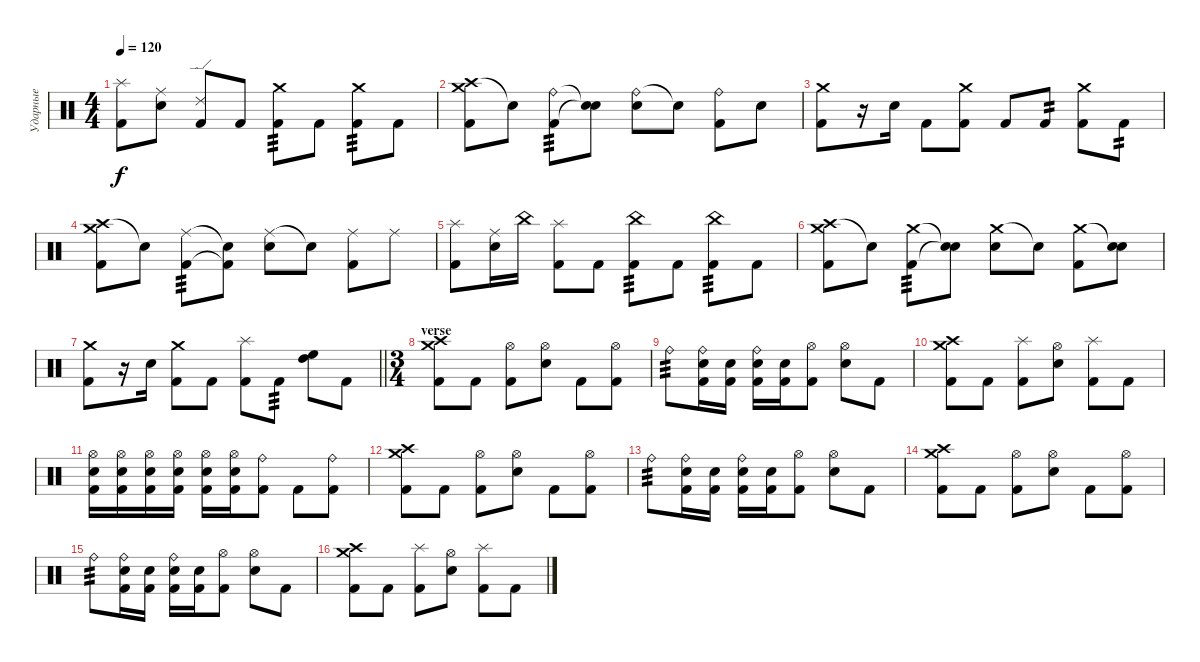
\track ("Ударные" "Ударные") {instrument percussion}
\staff {score}
\articulation defaults
\ts (4 4)
\tempo 120
\clef neutral
\ks c
("Splash (hit)" "Kick (hit) 2").8{dy f} ("Ride (middle)" "Electric Snare (hit)").8 ("Ride (edge) 2" "Kick (hit) 2").8 "Kick (hit) 2".8 ("Crash medium (hit)" "Kick (hit) 2").8{tp 3} "Kick (hit) 2".8 ("Crash medium (hit)" "Kick (hit) 2").8{tp 3} "Kick (hit) 2".8 |
("Crash high (hit)" "Crash medium (hit)" "Kick (hit) 2").8 "Snare (hit)"{t}.8 ("Ride (bell)" "Kick (hit) 2").8{tp 3} ("Snare (hit)"{t} "Snare (hit)"{t}).8 ("Ride (bell)" "Electric Snare (hit)").8 "Snare (hit)"{t}.8 ("Ride (bell)" "Kick (hit) 2").8 "Electric Snare (hit)".8 |
("Crash medium (hit)" "Kick (hit) 2").8 r.16 "Electric Snare (hit)".16 "Kick (hit) 2".8 ("Crash medium (hit)" "Kick (hit) 2").8 "Kick (hit) 2".8 "Kick (hit) 2".8{tp 2} ("Crash medium (hit)" "Kick (hit) 2").8 "Kick (hit) 2".8{tp 2} |
("Crash high (hit)" "Crash medium (hit)" "Kick (hit) 2").8 "Snare (hit)"{t}.8 ("Ride (middle)" "Kick (hit) 2").8{tp 3} ("Snare (hit)"{t} "Kick (hit) 2"{t}).8 ("Ride (middle)" "Electric Snare (hit)").8 "Snare (hit)"{t}.8 ("Ride (middle)" "Kick (hit) 2").8 "Ride (middle)".8 |
("Splash (hit)" "Kick (hit) 2").8 ("Ride (middle)" "Electric Snare (hit)").16 "China (hit)".16 ("Splash (hit)" "Kick (hit) 2").8 "Kick (hit) 2".8 ("China (hit)" "Kick (hit) 2").8{tp 3} "Kick (hit) 2".8 ("China (hit)" "Kick (hit) 2").8{tp 3} "Kick (hit) 2".8 |
("Crash high (hit)" "Crash medium (hit)" "Kick (hit) 2").8 "Snare (hit)"{t}.8 ("Crash medium (hit)" "Kick (hit) 2").8{tp 3} ("Snare (hit)"{t} "Snare (hit)"{t}).8 ("Crash medium (hit)" "Electric Snare (hit)").8 "Snare (hit)"{t}.8 ("Crash medium (hit)" "Kick (hit) 2").8 ("Snare (hit)"{t} "Electric Snare (hit)").8 |
\barLineRight lightlight
("Crash medium (hit)" "Kick (hit) 2").8 r.16 "Electric Snare (hit)".16 ("Crash medium (hit)" "Kick (hit) 2").8 "Kick (hit) 2".8 ("Splash (hit)" "Kick (hit) 2").8 "Kick (hit) 2".8{tp 3} ("High Tom (hit)" "High Floor Tom (hit)").8 "Kick (hit) 2".8 |
\ts (3 4)
\section ("" "verse")
("Crash high (hit)" "Crash medium (hit)" "Kick (hit) 2").8 "Kick (hit) 2".8 ("Hi-Hat (open)" "Kick (hit) 2").8 ("Hi-Hat (open)" "Electric Snare (hit)").8 "Kick (hit) 2".8 ("Hi-Hat (open)" "Kick (hit) 2").8 |
"Ride (bell)".8{tp 3} ("Ride (bell)" "Electric Snare (hit)" "Kick (hit) 2").16 ("Electric Snare (hit)" "Kick (hit) 2").16 ("Ride (bell)" "Electric Snare (hit)" "Kick (hit) 2").16 ("Electric Snare (hit)" "Kick (hit) 2").16 ("Hi-Hat (open)" "Kick (hit) 2").8 ("Hi-Hat (open)" "Electric Snare (hit)").8 "Kick (hit) 2".8 |
("Crash high (hit)" "Crash medium (hit)" "Kick (hit) 2").8 "Kick (hit) 2".8 ("Splash (hit)" "Kick (hit) 2").8 ("Hi-Hat (open)" "Electric Snare (hit)").8 ("Splash (hit)" "Kick (hit) 2").8 "Kick (hit) 2".8 |
("Hi-Hat (open)" "Electric Snare (hit)" "Kick (hit) 2").16 ("Hi-Hat (open)" "Electric Snare (hit)" "Kick (hit) 2").16 ("Hi-Hat (open)" "Electric Snare (hit)" "Kick (hit) 2").16 ("Hi-Hat (open)" "Electric Snare (hit)" "Kick (hit) 2").16 ("Hi-Hat (open)" "Electric Snare (hit)" "Kick (hit) 2").16 ("Hi-Hat (open)" "Electric Snare (hit)" "Kick (hit) 2").16 ("Ride (bell)" "Kick (hit) 2").8 "Kick (hit) 2".8 ("Ride (bell)" "Kick (hit) 2").8 |
("Crash high (hit)" "Crash medium (hit)" "Kick (hit) 2").8 "Kick (hit) 2".8 ("Hi-Hat (open)" "Kick (hit) 2").8 ("Hi-Hat (open)" "Electric Snare (hit)").8 "Kick (hit) 2".8 ("Hi-Hat (open)" "Kick (hit) 2").8 |
"Ride (bell)".8{tp 3} ("Ride (bell)" "Electric Snare (hit)" "Kick (hit) 2").16 ("Electric Snare (hit)" "Kick (hit) 2").16 ("Ride (bell)" "Electric Snare (hit)" "Kick (hit) 2").16 ("Electric Snare (hit)" "Kick (hit) 2").16 ("Hi-Hat (open)" "Kick (hit) 2").8 ("Hi-Hat (open)" "Electric Snare (hit)").8 "Kick (hit) 2".8 |
("Crash high (hit)" "Crash medium (hit)" "Kick (hit) 2").8 "Kick (hit) 2".8 ("Hi-Hat (open)" "Kick (hit) 2").8 ("Hi-Hat (open)" "Electric Snare (hit)").8 "Kick (hit) 2".8 ("Hi-Hat (open)" "Kick (hit) 2").8 |
"Ride (bell)".8{tp 3} ("Ride (bell)" "Electric Snare (hit)" "Kick (hit) 2").16 ("Electric Snare (hit)" "Kick (hit) 2").16 ("Ride (bell)" "Electric Snare (hit)" "Kick (hit) 2").16 ("Electric Snare (hit)" "Kick (hit) 2").16 ("Hi-Hat (open)" "Kick (hit) 2").8 ("Hi-Hat (open)" "Electric Snare (hit)").8 "Kick (hit) 2".8 |
("Crash high (hit)" "Crash medium (hit)" "Kick (hit) 2").8 "Kick (hit) 2".8 ("Splash (hit)" "Kick (hit) 2").8 ("Hi-Hat (open)" "Electric Snare (hit)").8 ("Splash (hit)" "Kick (hit) 2").8 "Kick (hit) 2".8
